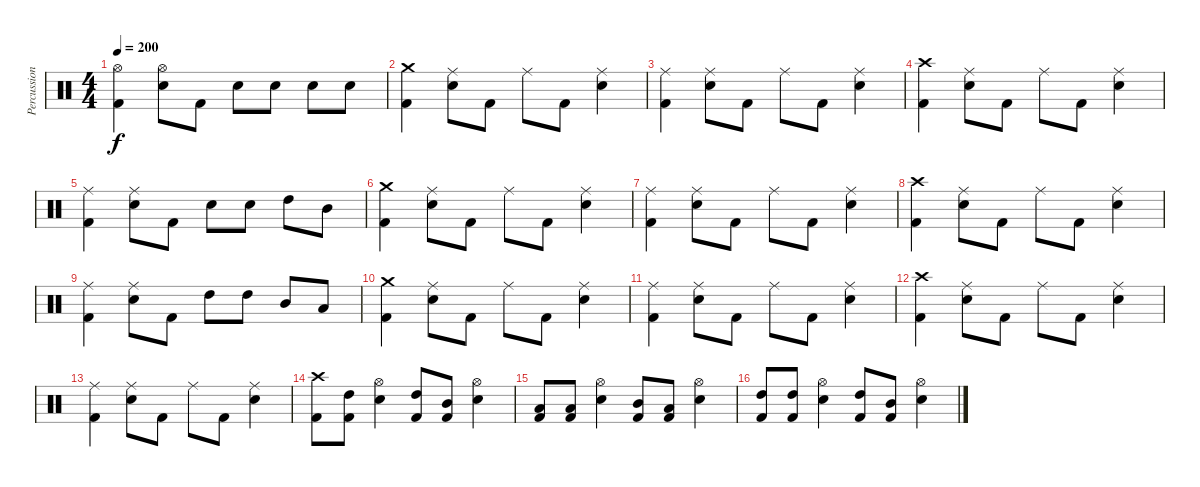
\track ("Percussioni" "Percussion") {instrument percussion}
\staff {score}
\articulation defaults
\ts (4 4)
\tempo 200
\clef neutral
\ks c
("Hi-Hat (open)" "Kick (hit) 2").4{dy f} ("Hi-Hat (open)" "Electric Snare (hit)").8 "Kick (hit) 2".8 "Electric Snare (hit)".8 "Electric Snare (hit)".8 "Electric Snare (hit)".8 "Electric Snare (hit)".8 |
("Crash medium (hit)" "Kick (hit) 2").4 ("Ride (middle)" "Electric Snare (hit)").8 "Kick (hit) 2".8 "Ride (middle)".8 "Kick (hit) 2".8 ("Ride (middle)" "Electric Snare (hit)").4 |
("Ride (middle)" "Kick (hit) 2").4 ("Ride (middle)" "Electric Snare (hit)").8 "Kick (hit) 2".8 "Ride (middle)".8 "Kick (hit) 2".8 ("Ride (middle)" "Electric Snare (hit)").4 |
("Crash high (hit)" "Kick (hit) 2").4 ("Ride (middle)" "Electric Snare (hit)").8 "Kick (hit) 2".8 "Ride (middle)".8 "Kick (hit) 2".8 ("Ride (middle)" "Electric Snare (hit)").4 |
("Ride (middle)" "Kick (hit) 2").4 ("Ride (middle)" "Electric Snare (hit)").8 "Kick (hit) 2".8 "Electric Snare (hit)".8 "Electric Snare (hit)".8 "High Tom (hit)".8 "Mid Tom (hit)".8 |
("Crash medium (hit)" "Kick (hit) 2").4 ("Ride (middle)" "Electric Snare (hit)").8 "Kick (hit) 2".8 "Ride (middle)".8 "Kick (hit) 2".8 ("Ride (middle)" "Electric Snare (hit)").4 |
("Ride (middle)" "Kick (hit) 2").4 ("Ride (middle)" "Electric Snare (hit)").8 "Kick (hit) 2".8 "Ride (middle)".8 "Kick (hit) 2".8 ("Ride (middle)" "Electric Snare (hit)").4 |
("Crash high (hit)" "Kick (hit) 2").4 ("Ride (middle)" "Electric Snare (hit)").8 "Kick (hit) 2".8 "Ride (middle)".8 "Kick (hit) 2".8 ("Ride (middle)" "Electric Snare (hit)").4 |
("Ride (middle)" "Kick (hit) 2").4 ("Ride (middle)" "Electric Snare (hit)").8 "Kick (hit) 2".8 "High Tom (hit)".8 "High Tom (hit)".8 "Mid Tom (hit)".8 "Low Tom (hit)".8 |
("Crash medium (hit)" "Kick (hit) 2").4 ("Ride (middle)" "Electric Snare (hit)").8 "Kick (hit) 2".8 "Ride (middle)".8 "Kick (hit) 2".8 ("Ride (middle)" "Electric Snare (hit)").4 |
("Ride (middle)" "Kick (hit) 2").4 ("Ride (middle)" "Electric Snare (hit)").8 "Kick (hit) 2".8 "Ride (middle)".8 "Kick (hit) 2".8 ("Ride (middle)" "Electric Snare (hit)").4 |
("Crash high (hit)" "Kick (hit) 2").4 ("Ride (middle)" "Electric Snare (hit)").8 "Kick (hit) 2".8 "Ride (middle)".8 "Kick (hit) 2".8 ("Ride (middle)" "Electric Snare (hit)").4 |
("Ride (middle)" "Kick (hit) 2").4 ("Ride (middle)" "Electric Snare (hit)").8 "Kick (hit) 2".8 "Ride (middle)".8 "Kick (hit) 2".8 ("Ride (middle)" "Electric Snare (hit)").4 |
("Crash high (hit)" "Kick (hit) 2").8 ("High Tom (hit)" "Kick (hit) 2").8 ("Hi-Hat (open)" "Electric Snare (hit)").4 ("High Tom (hit)" "Kick (hit) 2").8 ("Mid Tom (hit)" "Kick (hit) 2").8 ("Hi-Hat (open)" "Electric Snare (hit)").4 |
("Low Tom (hit)" "Kick (hit) 2").8 ("Low Tom (hit)" "Kick (hit) 2").8 ("Hi-Hat (open)" "Electric Snare (hit)").4 ("Mid Tom (hit)" "Kick (hit) 2").8 ("Low Tom (hit)" "Kick (hit) 2").8 ("Hi-Hat (open)" "Electric Snare (hit)").4 |
("High Tom (hit)" "Kick (hit) 2").8 ("High Tom (hit)" "Kick (hit) 2").8 ("Hi-Hat (open)" "Electric Snare (hit)").4 ("High Tom (hit)" "Kick (hit) 2").8 ("Mid Tom (hit)" "Kick (hit) 2").8 ("Hi-Hat (open)" "Electric Snare (hit)").4
